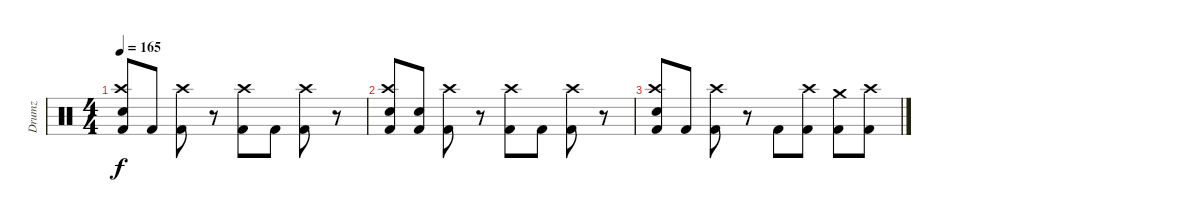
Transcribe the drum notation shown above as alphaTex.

\track ("Drumz" "Drumz") {instrument percussion}
\staff {score}
\articulation defaults
\ts (4 4)
\tempo 165
\clef neutral
\ks c
("Kick (hit) 2" "Crash high (hit)" "Snare (hit) 2").8{dy f} "Kick (hit) 2".8 ("Kick (hit) 2" "Crash high (hit)").8 r.8 ("Kick (hit) 2" "Crash high (hit)").8 "Kick (hit) 2".8 ("Kick (hit) 2" "Crash high (hit)").8 r.8 |
("Kick (hit) 2" "Crash high (hit)" "Snare (hit) 2").8 ("Kick (hit) 2" "Snare (hit)").8 ("Kick (hit) 2" "Crash high (hit)").8 r.8 ("Kick (hit) 2" "Crash high (hit)").8 "Kick (hit) 2".8 ("Kick (hit) 2" "Crash high (hit)").8 r.8 |
("Kick (hit) 2" "Crash high (hit)" "Snare (hit) 2").8 "Kick (hit) 2".8 ("Kick (hit) 2" "Crash high (hit)").8 r.8 "Kick (hit) 2".8 ("Kick (hit) 2" "Crash high (hit)").8 ("Kick (hit) 2" "Crash medium (hit)").8 ("Kick (hit) 2" "Crash high (hit)").8
